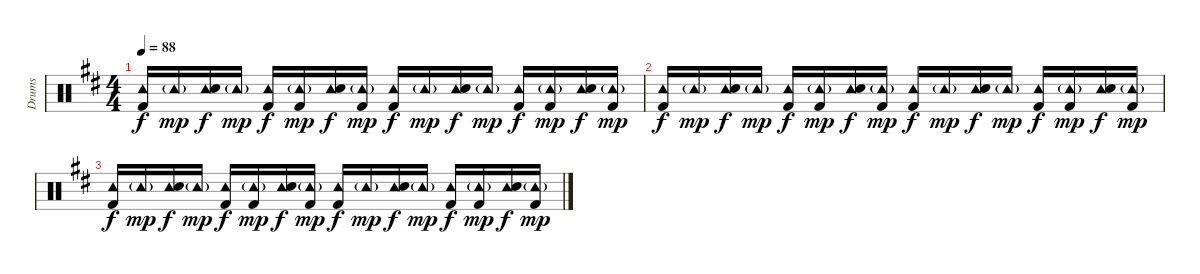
\track ("Drums" "Drums") {instrument percussion}
\staff {score}
\articulation defaults
\ts (4 4)
\tempo 88
\clef neutral
\ks d
("Tambourine (hit)" "Kick (hit) 2").16{dy f} "Tambourine (hit)"{g}.16{dy mp} ("Tambourine (hit)" "Snare (hit) 2").16{dy f} "Tambourine (hit)"{g}.16{dy mp} ("Tambourine (hit)" "Kick (hit) 2").16{dy f} ("Tambourine (hit)"{g} "Kick (hit) 2").16{dy mp} ("Tambourine (hit)" "Snare (hit) 2").16{dy f} ("Tambourine (hit)"{g} "Kick (hit) 2").16{dy mp} ("Tambourine (hit)" "Kick (hit) 2").16{dy f} "Tambourine (hit)"{g}.16{dy mp} ("Tambourine (hit)" "Snare (hit) 2").16{dy f} "Tambourine (hit)"{g}.16{dy mp} ("Tambourine (hit)" "Kick (hit) 2").16{dy f} ("Tambourine (hit)"{g} "Kick (hit) 2").16{dy mp} ("Tambourine (hit)" "Snare (hit) 2").16{dy f} ("Tambourine (hit)"{g} "Kick (hit) 2").16{dy mp} |
("Tambourine (hit)" "Kick (hit) 2").16{dy f} "Tambourine (hit)"{g}.16{dy mp} ("Tambourine (hit)" "Snare (hit) 2").16{dy f} "Tambourine (hit)"{g}.16{dy mp} ("Tambourine (hit)" "Kick (hit) 2").16{dy f} ("Tambourine (hit)"{g} "Kick (hit) 2").16{dy mp} ("Tambourine (hit)" "Snare (hit) 2").16{dy f} ("Tambourine (hit)"{g} "Kick (hit) 2").16{dy mp} ("Tambourine (hit)" "Kick (hit) 2").16{dy f} "Tambourine (hit)"{g}.16{dy mp} ("Tambourine (hit)" "Snare (hit) 2").16{dy f} "Tambourine (hit)"{g}.16{dy mp} ("Tambourine (hit)" "Kick (hit) 2").16{dy f} ("Tambourine (hit)"{g} "Kick (hit) 2").16{dy mp} ("Tambourine (hit)" "Snare (hit) 2").16{dy f} ("Tambourine (hit)"{g} "Kick (hit) 2").16{dy mp} |
("Tambourine (hit)" "Kick (hit) 2").16{dy f} "Tambourine (hit)"{g}.16{dy mp} ("Tambourine (hit)" "Snare (hit) 2").16{dy f} "Tambourine (hit)"{g}.16{dy mp} ("Tambourine (hit)" "Kick (hit) 2").16{dy f} ("Tambourine (hit)"{g} "Kick (hit) 2").16{dy mp} ("Tambourine (hit)" "Snare (hit) 2").16{dy f} ("Tambourine (hit)"{g} "Kick (hit) 2").16{dy mp} ("Tambourine (hit)" "Kick (hit) 2").16{dy f} "Tambourine (hit)"{g}.16{dy mp} ("Tambourine (hit)" "Snare (hit) 2").16{dy f} "Tambourine (hit)"{g}.16{dy mp} ("Tambourine (hit)" "Kick (hit) 2").16{dy f} ("Tambourine (hit)"{g} "Kick (hit) 2").16{dy mp} ("Tambourine (hit)" "Snare (hit) 2").16{dy f} ("Tambourine (hit)"{g} "Kick (hit) 2").16{dy mp}
